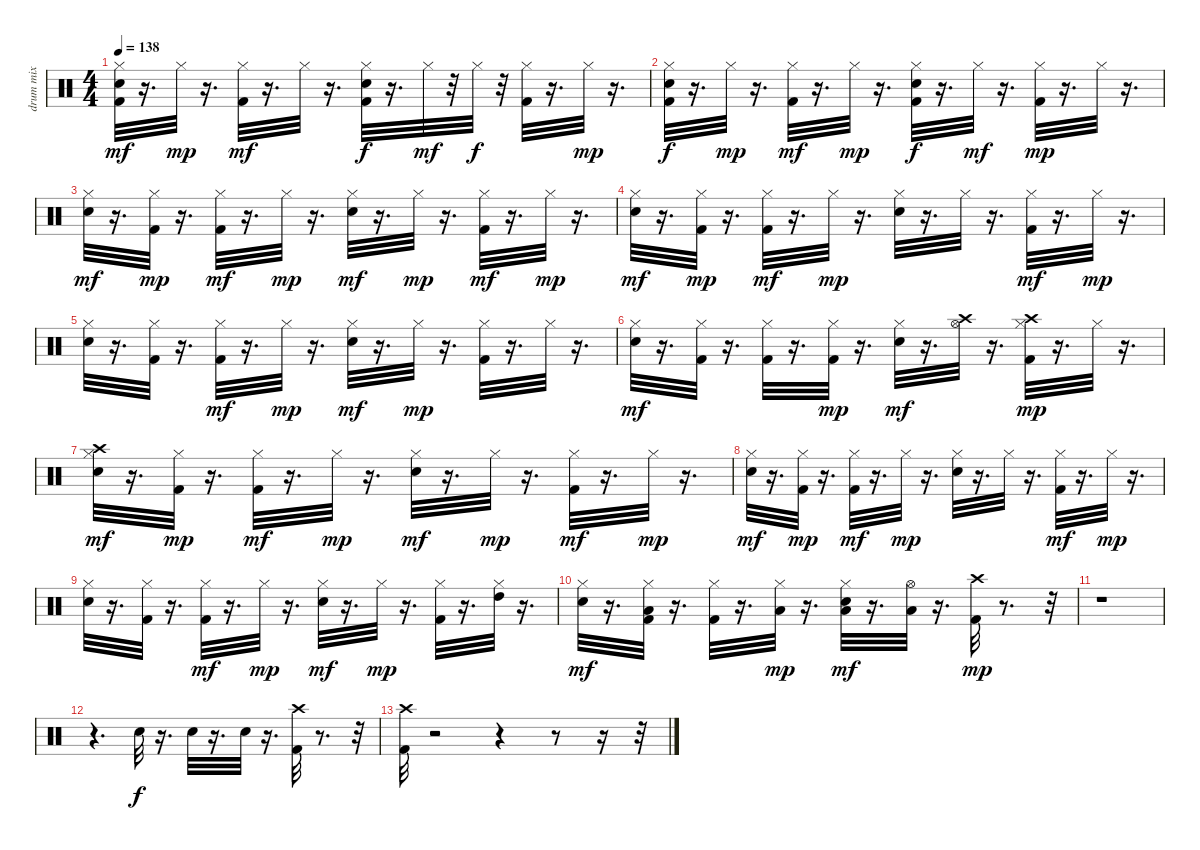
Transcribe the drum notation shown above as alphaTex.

\track ("drum mix" "drum mix") {instrument percussion}
\staff {score}
\articulation defaults
\ts (4 4)
\tempo 138
\clef neutral
\ks c
("Snare (hit) 2" "Hi-Hat (closed)" "Kick (hit) 2").32{dy mf} r.16{d} "Hi-Hat (closed)".32{dy mp} r.16{d} ("Hi-Hat (closed)" "Kick (hit) 2").32{dy mf} r.16{d} "Hi-Hat (closed)".32 r.16{d} ("Snare (hit) 2" "Hi-Hat (closed)" "Kick (hit) 2").32{dy f} r.16{d} "Hi-Hat (closed)".32{dy mf} r.32 "Hi-Hat (closed)".32{dy f} r.32 ("Hi-Hat (closed)" "Kick (hit) 2").32 r.16{d} "Hi-Hat (closed)".32{dy mp} r.16{d} |
("Snare (hit) 2" "Hi-Hat (closed)" "Kick (hit) 2").32{dy f} r.16{d} "Hi-Hat (closed)".32{dy mp} r.16{d} ("Hi-Hat (closed)" "Kick (hit) 2").32{dy mf} r.16{d} "Hi-Hat (closed)".32{dy mp} r.16{d} ("Snare (hit) 2" "Hi-Hat (closed)" "Kick (hit) 2").32{dy f} r.16{d} "Hi-Hat (closed)".32{dy mf} r.16{d} ("Hi-Hat (closed)" "Kick (hit) 2").32{dy mp} r.16{d} "Hi-Hat (closed)".32 r.16{d} |
("Snare (hit) 2" "Hi-Hat (closed)").32{dy mf} r.16{d} ("Hi-Hat (closed)" "Kick (hit) 2").32{dy mp} r.16{d} ("Hi-Hat (closed)" "Kick (hit) 2").32{dy mf} r.16{d} "Hi-Hat (closed)".32{dy mp} r.16{d} ("Snare (hit) 2" "Hi-Hat (closed)").32{dy mf} r.16{d} "Hi-Hat (closed)".32{dy mp} r.16{d} ("Hi-Hat (closed)" "Kick (hit) 2").32{dy mf} r.16{d} "Hi-Hat (closed)".32{dy mp} r.16{d} |
("Snare (hit) 2" "Hi-Hat (closed)").32{dy mf} r.16{d} ("Hi-Hat (closed)" "Kick (hit) 2").32{dy mp} r.16{d} ("Hi-Hat (closed)" "Kick (hit) 2").32{dy mf} r.16{d} "Hi-Hat (closed)".32{dy mp} r.16{d} ("Snare (hit) 2" "Hi-Hat (closed)").32 r.16{d} "Hi-Hat (closed)".32 r.16{d} ("Hi-Hat (closed)" "Kick (hit) 2").32{dy mf} r.16{d} "Hi-Hat (closed)".32{dy mp} r.16{d} |
("Snare (hit) 2" "Hi-Hat (closed)").32 r.16{d} ("Hi-Hat (closed)" "Kick (hit) 2").32 r.16{d} ("Hi-Hat (closed)" "Kick (hit) 2").32{dy mf} r.16{d} "Hi-Hat (closed)".32{dy mp} r.16{d} ("Snare (hit) 2" "Hi-Hat (closed)").32{dy mf} r.16{d} "Hi-Hat (closed)".32{dy mp} r.16{d} ("Hi-Hat (closed)" "Kick (hit) 2").32 r.16{d} "Hi-Hat (closed)".32 r.16{d} |
("Snare (hit) 2" "Hi-Hat (closed)").32{dy mf} r.16{d} ("Hi-Hat (closed)" "Kick (hit) 2").32 r.16{d} ("Hi-Hat (closed)" "Kick (hit) 2").32 r.16{d} ("Hi-Hat (closed)" "Kick (hit) 2").32{dy mp} r.16{d} ("Snare (hit) 2" "Hi-Hat (closed)").32{dy mf} r.16{d} ("Hi-Hat (open)" "Crash high (hit)").32 r.16{d} ("Hi-Hat (closed)" "Crash high (hit)" "Kick (hit) 2").32{dy mp} r.16{d} "Hi-Hat (closed)".32 r.16{d} |
("Snare (hit) 2" "Hi-Hat (closed)" "Crash high (hit)").32{dy mf} r.16{d} ("Hi-Hat (closed)" "Kick (hit) 2").32{dy mp} r.16{d} ("Hi-Hat (closed)" "Kick (hit) 2").32{dy mf} r.16{d} "Hi-Hat (closed)".32{dy mp} r.16{d} ("Snare (hit) 2" "Hi-Hat (closed)").32{dy mf} r.16{d} "Hi-Hat (closed)".32{dy mp} r.16{d} ("Hi-Hat (closed)" "Kick (hit) 2").32{dy mf} r.16{d} "Hi-Hat (closed)".32{dy mp} r.16{d} |
("Snare (hit) 2" "Hi-Hat (closed)").32{dy mf} r.16{d} ("Hi-Hat (closed)" "Kick (hit) 2").32{dy mp} r.16{d} ("Hi-Hat (closed)" "Kick (hit) 2").32{dy mf} r.16{d} "Hi-Hat (closed)".32{dy mp} r.16{d} ("Snare (hit) 2" "Hi-Hat (closed)").32 r.16{d} "Hi-Hat (closed)".32 r.16{d} ("Hi-Hat (closed)" "Kick (hit) 2").32{dy mf} r.16{d} "Hi-Hat (closed)".32{dy mp} r.16{d} |
("Snare (hit) 2" "Hi-Hat (closed)").32 r.16{d} ("Hi-Hat (closed)" "Kick (hit) 2").32 r.16{d} ("Hi-Hat (closed)" "Kick (hit) 2").32{dy mf} r.16{d} "Hi-Hat (closed)".32{dy mp} r.16{d} ("Snare (hit) 2" "Hi-Hat (closed)").32{dy mf} r.16{d} "Hi-Hat (closed)".32{dy mp} r.16{d} ("Hi-Hat (closed)" "Kick (hit) 2").32 r.16{d} ("Hi-Hat (closed)" "High Tom (hit)").32 r.16{d} |
("Snare (hit) 2" "Hi-Hat (closed)").32{dy mf} r.16{d} ("Hi-Hat (closed)" "Low Tom (hit)" "Kick (hit) 2").32 r.16{d} ("Hi-Hat (closed)" "Kick (hit) 2").32 r.16{d} ("Low Floor Tom (hit)" "Hi-Hat (closed)").32{dy mp} r.16{d} ("Snare (hit) 2" "Low Floor Tom (hit)" "Hi-Hat (closed)").32{dy mf} r.16{d} ("Low Floor Tom (hit)" "Hi-Hat (open)").32 r.16{d} ("Crash high (hit)" "Kick (hit) 2").32{dy mp} r.8{d} r.32 |
r.1 |
r.4{d} "Snare (hit) 2".32{dy f} r.16{d} "Snare (hit) 2".32 r.16{d} "Snare (hit) 2".32 r.16{d} ("Crash high (hit)" "Kick (hit) 2").32 r.8{d} r.32 |
("Crash high (hit)" "Kick (hit) 2").32 r.2 r.4 r.8 r.16 r.32
